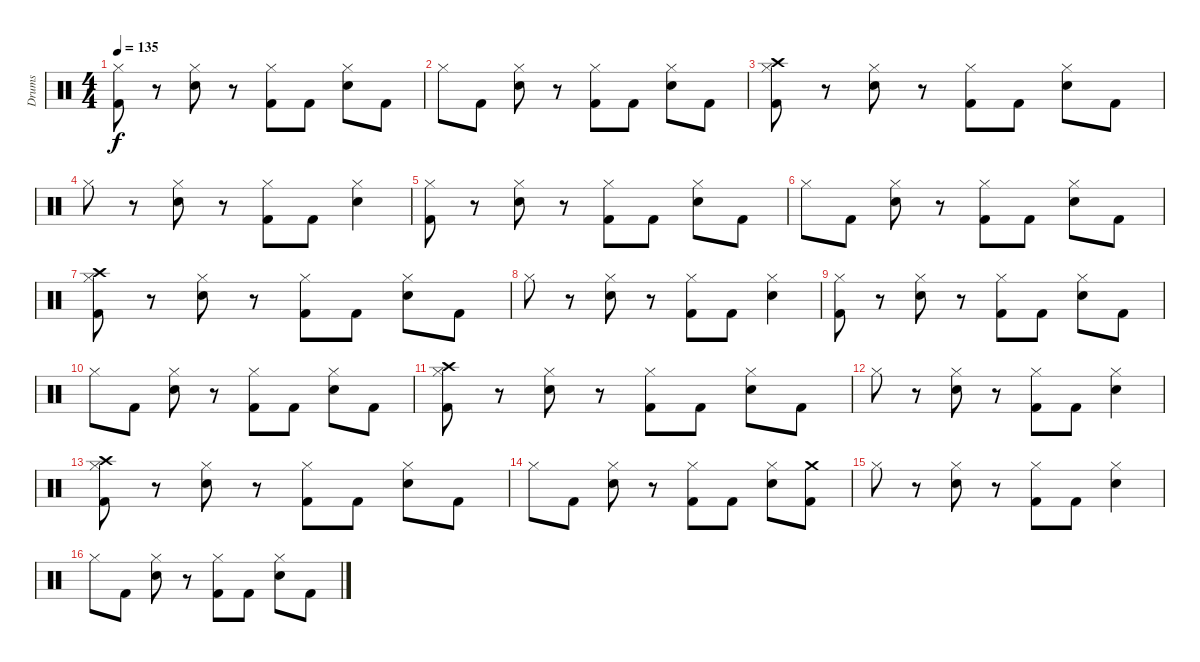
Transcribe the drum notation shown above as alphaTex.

\track ("Drums" "Drums") {instrument percussion}
\staff {score}
\articulation defaults
\ts (4 4)
\tempo 135
\clef neutral
\ks c
("Hi-Hat (closed)" "Kick (hit) 2").8{dy f} r.8 ("Hi-Hat (closed)" "Snare (hit) 2").8 r.8 ("Hi-Hat (closed)" "Kick (hit) 2").8 "Kick (hit) 2".8 ("Hi-Hat (closed)" "Snare (hit) 2").8 "Kick (hit) 2".8 |
"Hi-Hat (closed)".8 "Kick (hit) 2".8 ("Hi-Hat (closed)" "Snare (hit) 2").8 r.8 ("Hi-Hat (closed)" "Kick (hit) 2").8 "Kick (hit) 2".8 ("Hi-Hat (closed)" "Snare (hit) 2").8 "Kick (hit) 2".8 |
("Crash high (hit)" "Hi-Hat (closed)" "Kick (hit) 2").8 r.8 ("Hi-Hat (closed)" "Snare (hit) 2").8 r.8 ("Hi-Hat (closed)" "Kick (hit) 2").8 "Kick (hit) 2".8 ("Hi-Hat (closed)" "Snare (hit) 2").8 "Kick (hit) 2".8 |
"Hi-Hat (closed)".8 r.8 ("Hi-Hat (closed)" "Snare (hit) 2").8 r.8 ("Hi-Hat (closed)" "Kick (hit) 2").8 "Kick (hit) 2".8 ("Hi-Hat (closed)" "Snare (hit) 2").4 |
("Hi-Hat (closed)" "Kick (hit) 2").8 r.8 ("Hi-Hat (closed)" "Snare (hit) 2").8 r.8 ("Hi-Hat (closed)" "Kick (hit) 2").8 "Kick (hit) 2".8 ("Hi-Hat (closed)" "Snare (hit) 2").8 "Kick (hit) 2".8 |
"Hi-Hat (closed)".8 "Kick (hit) 2".8 ("Hi-Hat (closed)" "Snare (hit) 2").8 r.8 ("Hi-Hat (closed)" "Kick (hit) 2").8 "Kick (hit) 2".8 ("Hi-Hat (closed)" "Snare (hit) 2").8 "Kick (hit) 2".8 |
("Crash high (hit)" "Hi-Hat (closed)" "Kick (hit) 2").8 r.8 ("Hi-Hat (closed)" "Snare (hit) 2").8 r.8 ("Hi-Hat (closed)" "Kick (hit) 2").8 "Kick (hit) 2".8 ("Hi-Hat (closed)" "Snare (hit) 2").8 "Kick (hit) 2".8 |
"Hi-Hat (closed)".8 r.8 ("Hi-Hat (closed)" "Snare (hit) 2").8 r.8 ("Hi-Hat (closed)" "Kick (hit) 2").8 "Kick (hit) 2".8 ("Hi-Hat (closed)" "Snare (hit) 2").4 |
("Hi-Hat (closed)" "Kick (hit) 2").8 r.8 ("Hi-Hat (closed)" "Snare (hit) 2").8 r.8 ("Hi-Hat (closed)" "Kick (hit) 2").8 "Kick (hit) 2".8 ("Hi-Hat (closed)" "Snare (hit) 2").8 "Kick (hit) 2".8 |
"Hi-Hat (closed)".8 "Kick (hit) 2".8 ("Hi-Hat (closed)" "Snare (hit) 2").8 r.8 ("Hi-Hat (closed)" "Kick (hit) 2").8 "Kick (hit) 2".8 ("Hi-Hat (closed)" "Snare (hit) 2").8 "Kick (hit) 2".8 |
("Crash high (hit)" "Hi-Hat (closed)" "Kick (hit) 2").8 r.8 ("Hi-Hat (closed)" "Snare (hit) 2").8 r.8 ("Hi-Hat (closed)" "Kick (hit) 2").8 "Kick (hit) 2".8 ("Hi-Hat (closed)" "Snare (hit) 2").8 "Kick (hit) 2".8 |
"Hi-Hat (closed)".8 r.8 ("Hi-Hat (closed)" "Snare (hit) 2").8 r.8 ("Hi-Hat (closed)" "Kick (hit) 2").8 "Kick (hit) 2".8 ("Hi-Hat (closed)" "Snare (hit) 2").4 |
("Crash high (hit)" "Hi-Hat (closed)" "Kick (hit) 2").8 r.8 ("Hi-Hat (closed)" "Snare (hit) 2").8 r.8 ("Hi-Hat (closed)" "Kick (hit) 2").8 "Kick (hit) 2".8 ("Hi-Hat (closed)" "Snare (hit) 2").8 "Kick (hit) 2".8 |
"Hi-Hat (closed)".8 "Kick (hit) 2".8 ("Hi-Hat (closed)" "Snare (hit) 2").8 r.8 ("Hi-Hat (closed)" "Kick (hit) 2").8 "Kick (hit) 2".8 ("Hi-Hat (closed)" "Snare (hit) 2").8 ("Crash medium (hit)" "Kick (hit) 2").8 |
"Hi-Hat (closed)".8 r.8 ("Hi-Hat (closed)" "Snare (hit) 2").8 r.8 ("Hi-Hat (closed)" "Kick (hit) 2").8 "Kick (hit) 2".8 ("Hi-Hat (closed)" "Snare (hit) 2").4 |
"Hi-Hat (closed)".8 "Kick (hit) 2".8 ("Hi-Hat (closed)" "Snare (hit) 2").8 r.8 ("Hi-Hat (closed)" "Kick (hit) 2").8 "Kick (hit) 2".8 ("Hi-Hat (closed)" "Snare (hit) 2").8 "Kick (hit) 2".8
